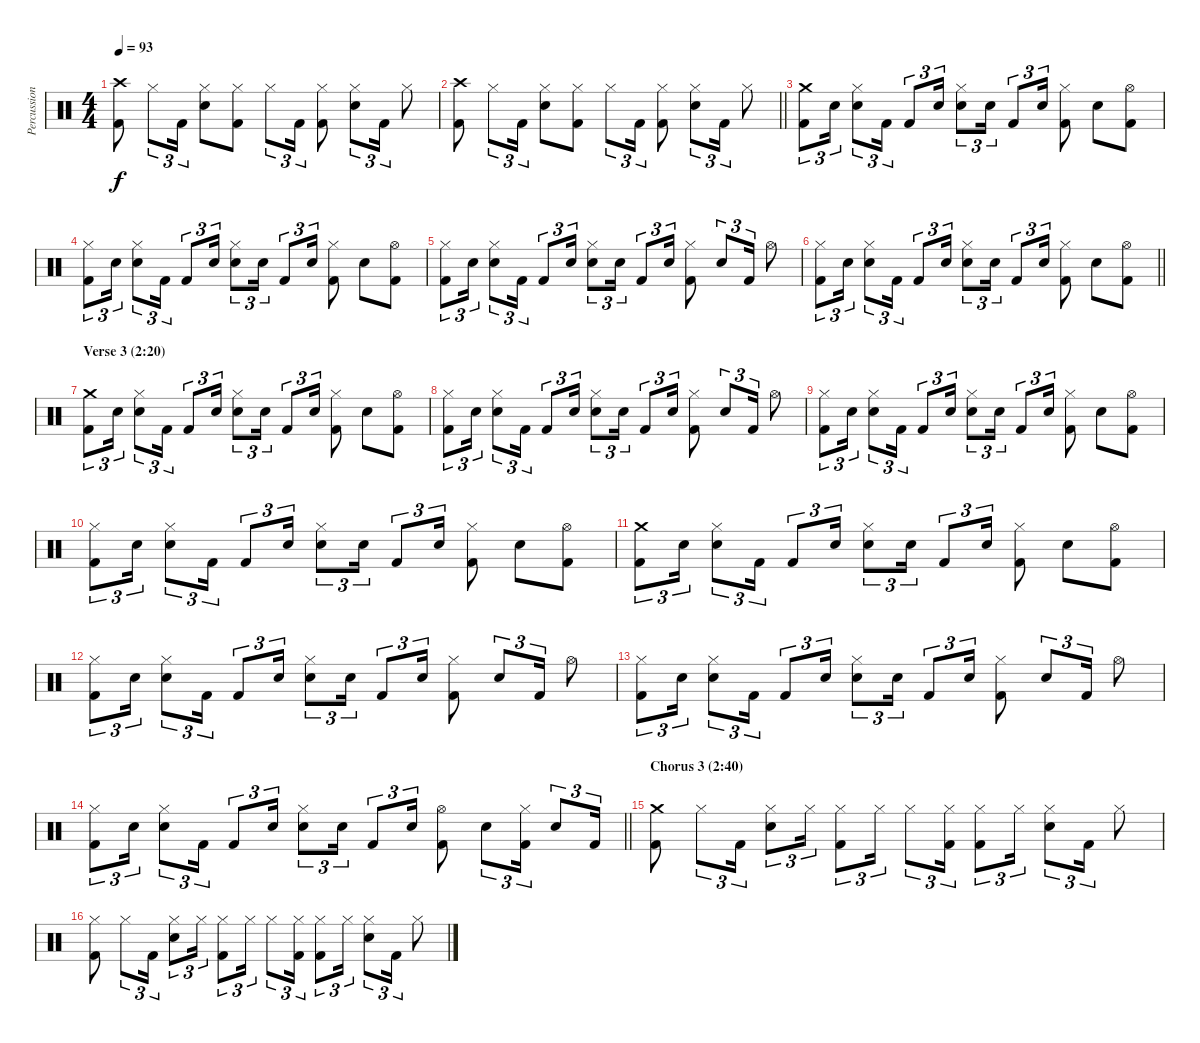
\track ("Percussion" "Percussion") {instrument percussion}
\staff {score}
\articulation defaults
\ts (4 4)
\tempo 93
\clef neutral
\ks c
("Crash high (hit)" "Kick (hit) 2").8{dy f} "Hi-Hat (closed)".8{tu (3 2)} "Kick (hit) 2".16{tu (3 2)} ("Hi-Hat (closed)" "Electric Snare (hit)").8 ("Hi-Hat (closed)" "Kick (hit) 2").8 "Hi-Hat (closed)".8{tu (3 2)} "Kick (hit) 2".16{tu (3 2)} ("Hi-Hat (closed)" "Kick (hit) 2").8 ("Hi-Hat (closed)" "Electric Snare (hit)").8{tu (3 2)} "Kick (hit) 2".16{tu (3 2)} "Hi-Hat (closed)".8 |
\barLineRight lightlight
("Crash high (hit)" "Kick (hit) 2").8 "Hi-Hat (closed)".8{tu (3 2)} "Kick (hit) 2".16{tu (3 2)} ("Hi-Hat (closed)" "Electric Snare (hit)").8 ("Hi-Hat (closed)" "Kick (hit) 2").8 "Hi-Hat (closed)".8{tu (3 2)} "Kick (hit) 2".16{tu (3 2)} ("Hi-Hat (closed)" "Kick (hit) 2").8 ("Hi-Hat (closed)" "Electric Snare (hit)").8{tu (3 2)} "Kick (hit) 2".16{tu (3 2)} "Hi-Hat (closed)".8 |
("Crash medium (hit)" "Kick (hit) 2").8{tu (3 2)} "Electric Snare (hit)".16{tu (3 2)} ("Hi-Hat (closed)" "Electric Snare (hit)").8{tu (3 2)} "Kick (hit) 2".16{tu (3 2)} "Kick (hit) 2".8{tu (3 2)} "Electric Snare (hit)".16{tu (3 2)} ("Hi-Hat (closed)" "Electric Snare (hit)").8{tu (3 2)} "Electric Snare (hit)".16{tu (3 2)} "Kick (hit) 2".8{tu (3 2)} "Electric Snare (hit)".16{tu (3 2)} ("Hi-Hat (closed)" "Kick (hit) 2").8 "Electric Snare (hit)".8 ("Hi-Hat (open)" "Kick (hit) 2").8 |
("Hi-Hat (closed)" "Kick (hit) 2").8{tu (3 2)} "Electric Snare (hit)".16{tu (3 2)} ("Hi-Hat (closed)" "Electric Snare (hit)").8{tu (3 2)} "Kick (hit) 2".16{tu (3 2)} "Kick (hit) 2".8{tu (3 2)} "Electric Snare (hit)".16{tu (3 2)} ("Hi-Hat (closed)" "Electric Snare (hit)").8{tu (3 2)} "Electric Snare (hit)".16{tu (3 2)} "Kick (hit) 2".8{tu (3 2)} "Electric Snare (hit)".16{tu (3 2)} ("Hi-Hat (closed)" "Kick (hit) 2").8 "Electric Snare (hit)".8 ("Hi-Hat (open)" "Kick (hit) 2").8 |
("Hi-Hat (closed)" "Kick (hit) 2").8{tu (3 2)} "Electric Snare (hit)".16{tu (3 2)} ("Hi-Hat (closed)" "Electric Snare (hit)").8{tu (3 2)} "Kick (hit) 2".16{tu (3 2)} "Kick (hit) 2".8{tu (3 2)} "Electric Snare (hit)".16{tu (3 2)} ("Hi-Hat (closed)" "Electric Snare (hit)").8{tu (3 2)} "Electric Snare (hit)".16{tu (3 2)} "Kick (hit) 2".8{tu (3 2)} "Electric Snare (hit)".16{tu (3 2)} ("Hi-Hat (closed)" "Kick (hit) 2").8 "Electric Snare (hit)".8{tu (3 2)} "Kick (hit) 2".16{tu (3 2)} "Hi-Hat (open)".8 |
\barLineRight lightlight
("Hi-Hat (closed)" "Kick (hit) 2").8{tu (3 2)} "Electric Snare (hit)".16{tu (3 2)} ("Hi-Hat (closed)" "Electric Snare (hit)").8{tu (3 2)} "Kick (hit) 2".16{tu (3 2)} "Kick (hit) 2".8{tu (3 2)} "Electric Snare (hit)".16{tu (3 2)} ("Hi-Hat (closed)" "Electric Snare (hit)").8{tu (3 2)} "Electric Snare (hit)".16{tu (3 2)} "Kick (hit) 2".8{tu (3 2)} "Electric Snare (hit)".16{tu (3 2)} ("Hi-Hat (closed)" "Kick (hit) 2").8 "Electric Snare (hit)".8 ("Hi-Hat (open)" "Kick (hit) 2").8 |
\section ("" "Verse 3 (2:20)")
("Crash medium (hit)" "Kick (hit) 2").8{tu (3 2)} "Electric Snare (hit)".16{tu (3 2)} ("Hi-Hat (closed)" "Electric Snare (hit)").8{tu (3 2)} "Kick (hit) 2".16{tu (3 2)} "Kick (hit) 2".8{tu (3 2)} "Electric Snare (hit)".16{tu (3 2)} ("Hi-Hat (closed)" "Electric Snare (hit)").8{tu (3 2)} "Electric Snare (hit)".16{tu (3 2)} "Kick (hit) 2".8{tu (3 2)} "Electric Snare (hit)".16{tu (3 2)} ("Hi-Hat (closed)" "Kick (hit) 2").8 "Electric Snare (hit)".8 ("Hi-Hat (open)" "Kick (hit) 2").8 |
("Hi-Hat (closed)" "Kick (hit) 2").8{tu (3 2)} "Electric Snare (hit)".16{tu (3 2)} ("Hi-Hat (closed)" "Electric Snare (hit)").8{tu (3 2)} "Kick (hit) 2".16{tu (3 2)} "Kick (hit) 2".8{tu (3 2)} "Electric Snare (hit)".16{tu (3 2)} ("Hi-Hat (closed)" "Electric Snare (hit)").8{tu (3 2)} "Electric Snare (hit)".16{tu (3 2)} "Kick (hit) 2".8{tu (3 2)} "Electric Snare (hit)".16{tu (3 2)} ("Hi-Hat (closed)" "Kick (hit) 2").8 "Electric Snare (hit)".8{tu (3 2)} "Kick (hit) 2".16{tu (3 2)} "Hi-Hat (open)".8 |
("Hi-Hat (closed)" "Kick (hit) 2").8{tu (3 2)} "Electric Snare (hit)".16{tu (3 2)} ("Hi-Hat (closed)" "Electric Snare (hit)").8{tu (3 2)} "Kick (hit) 2".16{tu (3 2)} "Kick (hit) 2".8{tu (3 2)} "Electric Snare (hit)".16{tu (3 2)} ("Hi-Hat (closed)" "Electric Snare (hit)").8{tu (3 2)} "Electric Snare (hit)".16{tu (3 2)} "Kick (hit) 2".8{tu (3 2)} "Electric Snare (hit)".16{tu (3 2)} ("Hi-Hat (closed)" "Kick (hit) 2").8 "Electric Snare (hit)".8 ("Hi-Hat (open)" "Kick (hit) 2").8 |
("Hi-Hat (closed)" "Kick (hit) 2").8{tu (3 2)} "Electric Snare (hit)".16{tu (3 2)} ("Hi-Hat (closed)" "Electric Snare (hit)").8{tu (3 2)} "Kick (hit) 2".16{tu (3 2)} "Kick (hit) 2".8{tu (3 2)} "Electric Snare (hit)".16{tu (3 2)} ("Hi-Hat (closed)" "Electric Snare (hit)").8{tu (3 2)} "Electric Snare (hit)".16{tu (3 2)} "Kick (hit) 2".8{tu (3 2)} "Electric Snare (hit)".16{tu (3 2)} ("Hi-Hat (closed)" "Kick (hit) 2").8 "Electric Snare (hit)".8 ("Hi-Hat (open)" "Kick (hit) 2").8 |
("Crash medium (hit)" "Kick (hit) 2").8{tu (3 2)} "Electric Snare (hit)".16{tu (3 2)} ("Hi-Hat (closed)" "Electric Snare (hit)").8{tu (3 2)} "Kick (hit) 2".16{tu (3 2)} "Kick (hit) 2".8{tu (3 2)} "Electric Snare (hit)".16{tu (3 2)} ("Hi-Hat (closed)" "Electric Snare (hit)").8{tu (3 2)} "Electric Snare (hit)".16{tu (3 2)} "Kick (hit) 2".8{tu (3 2)} "Electric Snare (hit)".16{tu (3 2)} ("Hi-Hat (closed)" "Kick (hit) 2").8 "Electric Snare (hit)".8 ("Hi-Hat (open)" "Kick (hit) 2").8 |
("Hi-Hat (closed)" "Kick (hit) 2").8{tu (3 2)} "Electric Snare (hit)".16{tu (3 2)} ("Hi-Hat (closed)" "Electric Snare (hit)").8{tu (3 2)} "Kick (hit) 2".16{tu (3 2)} "Kick (hit) 2".8{tu (3 2)} "Electric Snare (hit)".16{tu (3 2)} ("Hi-Hat (closed)" "Electric Snare (hit)").8{tu (3 2)} "Electric Snare (hit)".16{tu (3 2)} "Kick (hit) 2".8{tu (3 2)} "Electric Snare (hit)".16{tu (3 2)} ("Hi-Hat (closed)" "Kick (hit) 2").8 "Electric Snare (hit)".8{tu (3 2)} "Kick (hit) 2".16{tu (3 2)} "Hi-Hat (open)".8 |
("Hi-Hat (closed)" "Kick (hit) 2").8{tu (3 2)} "Electric Snare (hit)".16{tu (3 2)} ("Hi-Hat (closed)" "Electric Snare (hit)").8{tu (3 2)} "Kick (hit) 2".16{tu (3 2)} "Kick (hit) 2".8{tu (3 2)} "Electric Snare (hit)".16{tu (3 2)} ("Hi-Hat (closed)" "Electric Snare (hit)").8{tu (3 2)} "Electric Snare (hit)".16{tu (3 2)} "Kick (hit) 2".8{tu (3 2)} "Electric Snare (hit)".16{tu (3 2)} ("Hi-Hat (closed)" "Kick (hit) 2").8 "Electric Snare (hit)".8{tu (3 2)} "Kick (hit) 2".16{tu (3 2)} "Hi-Hat (open)".8 |
\barLineRight lightlight
("Hi-Hat (closed)" "Kick (hit) 2").8{tu (3 2)} "Electric Snare (hit)".16{tu (3 2)} ("Hi-Hat (closed)" "Electric Snare (hit)").8{tu (3 2)} "Kick (hit) 2".16{tu (3 2)} "Kick (hit) 2".8{tu (3 2)} "Electric Snare (hit)".16{tu (3 2)} ("Hi-Hat (closed)" "Electric Snare (hit)").8{tu (3 2)} "Electric Snare (hit)".16{tu (3 2)} "Kick (hit) 2".8{tu (3 2)} "Electric Snare (hit)".16{tu (3 2)} ("Hi-Hat (open)" "Kick (hit) 2").8 "Electric Snare (hit)".8{tu (3 2)} ("Hi-Hat (closed)" "Kick (hit) 2").16{tu (3 2)} "Electric Snare (hit)".8{tu (3 2)} "Kick (hit) 2".16{tu (3 2)} |
\section ("" "Chorus 3 (2:40)")
("Crash medium (hit)" "Kick (hit) 2").8 "Hi-Hat (closed)".8{tu (3 2)} "Kick (hit) 2".16{tu (3 2)} ("Hi-Hat (closed)" "Electric Snare (hit)").8{tu (3 2)} "Hi-Hat (closed)".16{tu (3 2)} ("Hi-Hat (closed)" "Kick (hit) 2").8{tu (3 2)} "Hi-Hat (closed)".16{tu (3 2)} "Hi-Hat (closed)".8{tu (3 2)} ("Hi-Hat (closed)" "Kick (hit) 2").16{tu (3 2)} ("Hi-Hat (closed)" "Kick (hit) 2").8{tu (3 2)} "Hi-Hat (closed)".16{tu (3 2)} ("Hi-Hat (closed)" "Electric Snare (hit)").8{tu (3 2)} "Kick (hit) 2".16{tu (3 2)} "Hi-Hat (closed)".8 |
("Hi-Hat (closed)" "Kick (hit) 2").8 "Hi-Hat (closed)".8{tu (3 2)} "Kick (hit) 2".16{tu (3 2)} ("Hi-Hat (closed)" "Electric Snare (hit)").8{tu (3 2)} "Hi-Hat (closed)".16{tu (3 2)} ("Hi-Hat (closed)" "Kick (hit) 2").8{tu (3 2)} "Hi-Hat (closed)".16{tu (3 2)} "Hi-Hat (closed)".8{tu (3 2)} ("Hi-Hat (closed)" "Kick (hit) 2").16{tu (3 2)} ("Hi-Hat (closed)" "Kick (hit) 2").8{tu (3 2)} "Hi-Hat (closed)".16{tu (3 2)} ("Hi-Hat (closed)" "Electric Snare (hit)").8{tu (3 2)} "Kick (hit) 2".16{tu (3 2)} "Hi-Hat (closed)".8
